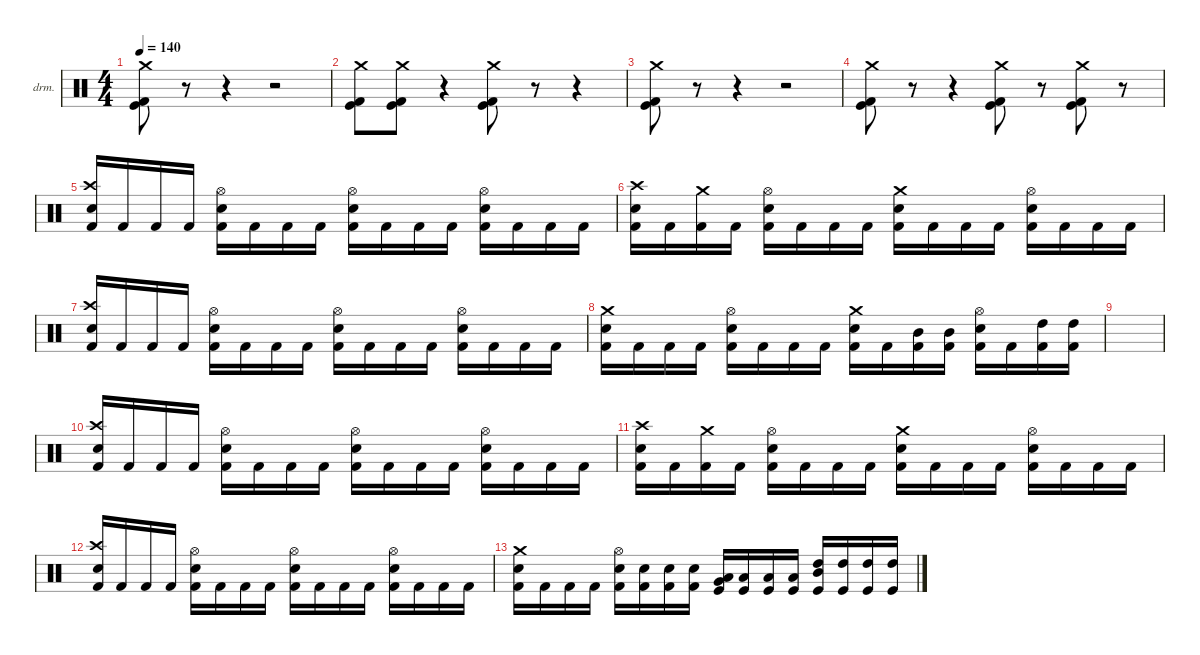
\defaultSystemsLayout 4
\hideDynamics
\bracketExtendMode nobrackets
\firstSystemTrackNameOrientation horizontal
\otherSystemsTrackNameOrientation horizontal
\track ("Drumkit" "drm.") {instrument percussion}
\staff {score}
\articulation defaults
\ts (4 4)
\beaming (8 2 2 2 2)
\tempo 140
\clef neutral
\ks c
("Crash medium (hit)" "Kick (hit) 2" "Kick (hit)").8{dy f} r.8 r.4 r.2 |
("Crash medium (hit)" "Kick (hit) 2" "Kick (hit)").8 ("Crash medium (hit)" "Kick (hit) 2" "Kick (hit)").8 r.4 ("Crash medium (hit)" "Kick (hit) 2" "Kick (hit)").8 r.8 r.4 |
("Crash medium (hit)" "Kick (hit) 2" "Kick (hit)").8 r.8 r.4 r.2 |
("Crash medium (hit)" "Kick (hit) 2" "Kick (hit)").8 r.8 r.4 ("Crash medium (hit)" "Kick (hit) 2" "Kick (hit)").8 r.8 ("Crash medium (hit)" "Kick (hit) 2" "Kick (hit)").8 r.8 |
("Crash high (hit)" "Snare (hit) 2" "Kick (hit) 2").16 "Kick (hit) 2".16 "Kick (hit) 2".16 "Kick (hit) 2".16 ("Hi-Hat (open)" "Snare (hit) 2" "Kick (hit) 2").16 "Kick (hit) 2".16 "Kick (hit) 2".16 "Kick (hit) 2".16 ("Hi-Hat (open)" "Snare (hit) 2" "Kick (hit) 2").16 "Kick (hit) 2".16 "Kick (hit) 2".16 "Kick (hit) 2".16 ("Hi-Hat (open)" "Snare (hit) 2" "Kick (hit) 2").16 "Kick (hit) 2".16 "Kick (hit) 2".16 "Kick (hit) 2".16 |
("Crash high (hit)" "Snare (hit) 2" "Kick (hit) 2").16 "Kick (hit) 2".16 ("Kick (hit) 2" "Crash medium (hit)").16 "Kick (hit) 2".16 ("Hi-Hat (open)" "Snare (hit) 2" "Kick (hit) 2").16 "Kick (hit) 2".16 "Kick (hit) 2".16 "Kick (hit) 2".16 ("Snare (hit) 2" "Kick (hit) 2" "Crash medium (hit)").16 "Kick (hit) 2".16 "Kick (hit) 2".16 "Kick (hit) 2".16 ("Hi-Hat (open)" "Snare (hit) 2" "Kick (hit) 2").16 "Kick (hit) 2".16 "Kick (hit) 2".16 "Kick (hit) 2".16 |
("Crash high (hit)" "Snare (hit) 2" "Kick (hit) 2").16 "Kick (hit) 2".16 "Kick (hit) 2".16 "Kick (hit) 2".16 ("Hi-Hat (open)" "Snare (hit) 2" "Kick (hit) 2").16 "Kick (hit) 2".16 "Kick (hit) 2".16 "Kick (hit) 2".16 ("Hi-Hat (open)" "Snare (hit) 2" "Kick (hit) 2").16 "Kick (hit) 2".16 "Kick (hit) 2".16 "Kick (hit) 2".16 ("Hi-Hat (open)" "Snare (hit) 2" "Kick (hit) 2").16 "Kick (hit) 2".16 "Kick (hit) 2".16 "Kick (hit) 2".16 |
("Snare (hit) 2" "Kick (hit) 2" "Crash medium (hit)").16 "Kick (hit) 2".16 "Kick (hit) 2".16 "Kick (hit) 2".16 ("Hi-Hat (open)" "Snare (hit) 2" "Kick (hit) 2").16 "Kick (hit) 2".16 "Kick (hit) 2".16 "Kick (hit) 2".16 ("Snare (hit) 2" "Kick (hit) 2" "Crash medium (hit)").16 "Kick (hit) 2".16 ("Kick (hit) 2" "Mid Tom (hit)").16 ("Kick (hit) 2" "Mid Tom (hit)").16 ("Hi-Hat (open)" "Snare (hit) 2" "Kick (hit) 2").16 "Kick (hit) 2".16 ("Kick (hit) 2" "High Tom (hit)").16 ("Kick (hit) 2" "High Tom (hit)").16 |
|
("Crash high (hit)" "Snare (hit) 2" "Kick (hit) 2").16 "Kick (hit) 2".16 "Kick (hit) 2".16 "Kick (hit) 2".16 ("Hi-Hat (open)" "Snare (hit) 2" "Kick (hit) 2").16 "Kick (hit) 2".16 "Kick (hit) 2".16 "Kick (hit) 2".16 ("Hi-Hat (open)" "Snare (hit) 2" "Kick (hit) 2").16 "Kick (hit) 2".16 "Kick (hit) 2".16 "Kick (hit) 2".16 ("Hi-Hat (open)" "Snare (hit) 2" "Kick (hit) 2").16 "Kick (hit) 2".16 "Kick (hit) 2".16 "Kick (hit) 2".16 |
("Crash high (hit)" "Snare (hit) 2" "Kick (hit) 2").16 "Kick (hit) 2".16 ("Kick (hit) 2" "Crash medium (hit)").16 "Kick (hit) 2".16 ("Hi-Hat (open)" "Snare (hit) 2" "Kick (hit) 2").16 "Kick (hit) 2".16 "Kick (hit) 2".16 "Kick (hit) 2".16 ("Snare (hit) 2" "Kick (hit) 2" "Crash medium (hit)").16 "Kick (hit) 2".16 "Kick (hit) 2".16 "Kick (hit) 2".16 ("Hi-Hat (open)" "Snare (hit) 2" "Kick (hit) 2").16 "Kick (hit) 2".16 "Kick (hit) 2".16 "Kick (hit) 2".16 |
("Crash high (hit)" "Snare (hit) 2" "Kick (hit) 2").16 "Kick (hit) 2".16 "Kick (hit) 2".16 "Kick (hit) 2".16 ("Hi-Hat (open)" "Snare (hit) 2" "Kick (hit) 2").16 "Kick (hit) 2".16 "Kick (hit) 2".16 "Kick (hit) 2".16 ("Hi-Hat (open)" "Snare (hit) 2" "Kick (hit) 2").16 "Kick (hit) 2".16 "Kick (hit) 2".16 "Kick (hit) 2".16 ("Hi-Hat (open)" "Snare (hit) 2" "Kick (hit) 2").16 "Kick (hit) 2".16 "Kick (hit) 2".16 "Kick (hit) 2".16 |
("Snare (hit) 2" "Kick (hit) 2" "Crash medium (hit)").16 "Kick (hit) 2".16 "Kick (hit) 2".16 "Kick (hit) 2".16 ("Hi-Hat (open)" "Snare (hit) 2" "Kick (hit) 2").16 ("Kick (hit) 2" "Snare (hit) 2").16 ("Kick (hit) 2" "Snare (hit) 2").16 ("Kick (hit) 2" "Snare (hit) 2").16 ("Kick (hit)" "Very Low Tom (hit)" "Low Tom (hit)").16 ("Kick (hit)" "Low Tom (hit)").16 ("Kick (hit)" "Low Tom (hit)").16 ("Kick (hit)" "Low Tom (hit)").16 ("High Tom (hit)" "Mid Tom (hit)" "Kick (hit)").16 ("Kick (hit)" "High Tom (hit)").16 ("High Tom (hit)" "Kick (hit)").16 ("High Tom (hit)" "Kick (hit)").16
